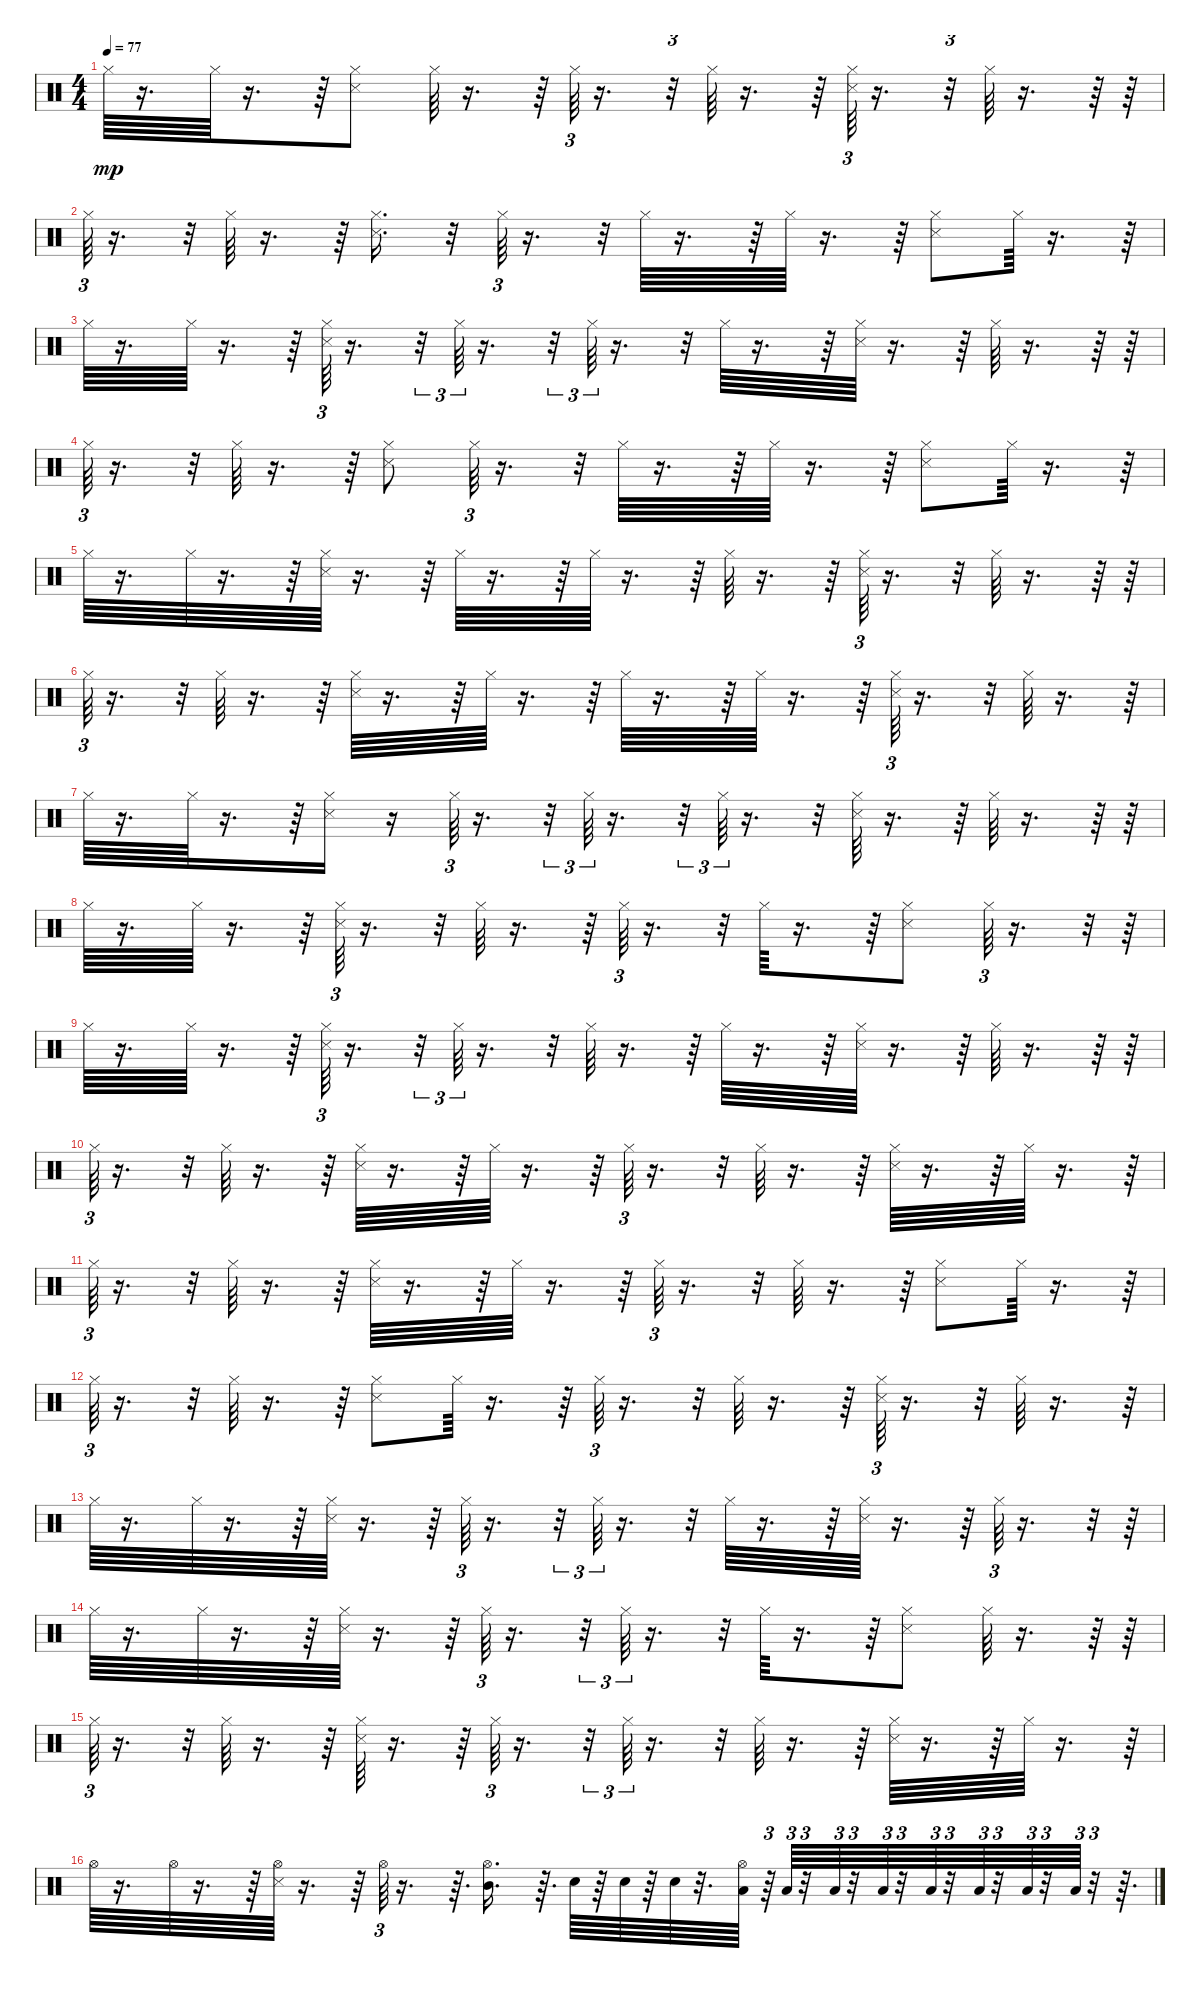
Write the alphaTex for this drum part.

\track "" {instrument percussion}
\staff {score}
\articulation defaults
\ts (4 4)
\tempo 77
\clef neutral
\ks c "Hi-Hat (closed)".64{dy mp}
r.16{d} "Hi-Hat (closed)".64 r.16{d} r.64 ("Snare (side stick) 3" "Hi-Hat (closed)").8 "Hi-Hat (closed)".64 r.16{d} r.64 "Hi-Hat (closed)".64{tu (3 2)} r.16{d} r.32{tu (3 2)} "Hi-Hat (closed)".64 r.16{d} r.64 ("Hi-Hat (closed)" "Snare (side stick) 3").64{tu (3 2)} r.16{d} r.32{tu (3 2)} "Hi-Hat (closed)".64 r.16{d} r.64 r.64 |
"Hi-Hat (closed)".64{tu (3 2)} r.16{d} r.32{tu (3 2)} "Hi-Hat (closed)".64 r.16{d} r.64 ("Hi-Hat (closed)" "Snare (side stick) 3").16{d} r.32 "Hi-Hat (closed)".64{tu (3 2)} r.16{d} r.32{tu (3 2)} "Hi-Hat (closed)".64 r.16{d} r.64 "Hi-Hat (closed)".64 r.16{d} r.64 ("Hi-Hat (closed)" "Snare (side stick) 3").8 "Hi-Hat (closed)".64 r.16{d} r.64 |
"Hi-Hat (closed)".64 r.16{d} "Hi-Hat (closed)".64 r.16{d} r.64 ("Hi-Hat (closed)" "Snare (side stick) 3").64{tu (3 2)} r.16{d} r.32{tu (3 2)} "Hi-Hat (closed)".64{tu (3 2)} r.16{d} r.32{tu (3 2)} "Hi-Hat (closed)".64{tu (3 2)} r.16{d} r.32{tu (3 2)} "Hi-Hat (closed)".64 r.16{d} r.64 ("Hi-Hat (closed)" "Snare (side stick) 3").64 r.16{d} r.64 "Hi-Hat (closed)".64 r.16{d} r.64 r.64 |
"Hi-Hat (closed)".64{tu (3 2)} r.16{d} r.32{tu (3 2)} "Hi-Hat (closed)".64 r.16{d} r.64 ("Snare (side stick) 3" "Hi-Hat (closed)").8 "Hi-Hat (closed)".64{tu (3 2)} r.16{d} r.32{tu (3 2)} "Hi-Hat (closed)".64 r.16{d} r.64 "Hi-Hat (closed)".64 r.16{d} r.64 ("Snare (side stick) 3" "Hi-Hat (closed)").8 "Hi-Hat (closed)".64 r.16{d} r.64 |
"Hi-Hat (closed)".64 r.16{d} "Hi-Hat (closed)".64 r.16{d} r.64 ("Hi-Hat (closed)" "Snare (side stick) 3").64 r.16{d} r.64 "Hi-Hat (closed)".64 r.16{d} r.64 "Hi-Hat (closed)".64 r.16{d} r.64 "Hi-Hat (closed)".64 r.16{d} r.64 ("Hi-Hat (closed)" "Snare (side stick) 3").64{tu (3 2)} r.16{d} r.32{tu (3 2)} "Hi-Hat (closed)".64 r.16{d} r.64 r.64 |
"Hi-Hat (closed)".64{tu (3 2)} r.16{d} r.32{tu (3 2)} "Hi-Hat (closed)".64 r.16{d} r.64 ("Hi-Hat (closed)" "Snare (side stick) 3").64 r.16{d} r.64 "Hi-Hat (closed)".64 r.16{d} r.64 "Hi-Hat (closed)".64 r.16{d} r.64 "Hi-Hat (closed)".64 r.16{d} r.64 ("Hi-Hat (closed)" "Snare (side stick) 3").64{tu (3 2)} r.16{d} r.32{tu (3 2)} "Hi-Hat (closed)".64 r.16{d} r.64 |
"Hi-Hat (closed)".64 r.16{d} "Hi-Hat (closed)".64 r.16{d} r.64 ("Hi-Hat (closed)" "Snare (side stick) 3").16 r.16 "Hi-Hat (closed)".64{tu (3 2)} r.16{d} r.32{tu (3 2)} "Hi-Hat (closed)".64{tu (3 2)} r.16{d} r.32{tu (3 2)} "Hi-Hat (closed)".64{tu (3 2)} r.16{d} r.32{tu (3 2)} ("Hi-Hat (closed)" "Snare (side stick) 3").64 r.16{d} r.64 "Hi-Hat (closed)".64 r.16{d} r.64 r.64 |
"Hi-Hat (closed)".64 r.16{d} "Hi-Hat (closed)".64 r.16{d} r.64 ("Hi-Hat (closed)" "Snare (side stick) 3").64{tu (3 2)} r.16{d} r.32{tu (3 2)} "Hi-Hat (closed)".64 r.16{d} r.64 "Hi-Hat (closed)".64{tu (3 2)} r.16{d} r.32{tu (3 2)} "Hi-Hat (closed)".64 r.16{d} r.64 ("Snare (side stick) 3" "Hi-Hat (closed)").8 "Hi-Hat (closed)".64{tu (3 2)} r.16{d} r.32{tu (3 2)} r.64 |
"Hi-Hat (closed)".64 r.16{d} "Hi-Hat (closed)".64 r.16{d} r.64 ("Hi-Hat (closed)" "Snare (side stick) 3").64{tu (3 2)} r.16{d} r.32{tu (3 2)} "Hi-Hat (closed)".64{tu (3 2)} r.16{d} r.32{tu (3 2)} "Hi-Hat (closed)".64 r.16{d} r.64 "Hi-Hat (closed)".64 r.16{d} r.64 ("Hi-Hat (closed)" "Snare (side stick) 3").64 r.16{d} r.64 "Hi-Hat (closed)".64 r.16{d} r.64 r.64 |
"Hi-Hat (closed)".64{tu (3 2)} r.16{d} r.32{tu (3 2)} "Hi-Hat (closed)".64 r.16{d} r.64 ("Hi-Hat (closed)" "Snare (side stick) 3").64 r.16{d} r.64 "Hi-Hat (closed)".64 r.16{d} r.64 "Hi-Hat (closed)".64{tu (3 2)} r.16{d} r.32{tu (3 2)} "Hi-Hat (closed)".64 r.16{d} r.64 ("Hi-Hat (closed)" "Snare (side stick) 3").64 r.16{d} r.64 "Hi-Hat (closed)".64 r.16{d} r.64 |
"Hi-Hat (closed)".64{tu (3 2)} r.16{d} r.32{tu (3 2)} "Hi-Hat (closed)".64 r.16{d} r.64 ("Hi-Hat (closed)" "Snare (side stick) 3").64 r.16{d} r.64 "Hi-Hat (closed)".64 r.16{d} r.64 "Hi-Hat (closed)".64{tu (3 2)} r.16{d} r.32{tu (3 2)} "Hi-Hat (closed)".64 r.16{d} r.64 ("Snare (side stick) 3" "Hi-Hat (closed)").8 "Hi-Hat (closed)".64 r.16{d} r.64 |
"Hi-Hat (closed)".64{tu (3 2)} r.16{d} r.32{tu (3 2)} "Hi-Hat (closed)".64 r.16{d} r.64 ("Snare (side stick) 3" "Hi-Hat (closed)").8 "Hi-Hat (closed)".64 r.16{d} r.64 "Hi-Hat (closed)".64{tu (3 2)} r.16{d} r.32{tu (3 2)} "Hi-Hat (closed)".64 r.16{d} r.64 ("Hi-Hat (closed)" "Snare (side stick) 3").64{tu (3 2)} r.16{d} r.32{tu (3 2)} "Hi-Hat (closed)".64 r.16{d} r.64 |
"Hi-Hat (closed)".64 r.16{d} "Hi-Hat (closed)".64 r.16{d} r.64 ("Hi-Hat (closed)" "Snare (side stick) 3").64 r.16{d} r.64 "Hi-Hat (closed)".64{tu (3 2)} r.16{d} r.32{tu (3 2)} "Hi-Hat (closed)".64{tu (3 2)} r.16{d} r.32{tu (3 2)} "Hi-Hat (closed)".64 r.16{d} r.64 ("Hi-Hat (closed)" "Snare (side stick) 3").64 r.16{d} r.64 "Hi-Hat (closed)".64{tu (3 2)} r.16{d} r.32{tu (3 2)} r.64 |
"Hi-Hat (closed)".64 r.16{d} "Hi-Hat (closed)".64 r.16{d} r.64 ("Hi-Hat (closed)" "Snare (side stick) 3").64 r.16{d} r.64 "Hi-Hat (closed)".64{tu (3 2)} r.16{d} r.32{tu (3 2)} "Hi-Hat (closed)".64{tu (3 2)} r.16{d} r.32{tu (3 2)} "Hi-Hat (closed)".64 r.16{d} r.64 ("Snare (side stick) 3" "Hi-Hat (closed)").8 "Hi-Hat (closed)".64 r.16{d} r.64 r.64 |
"Hi-Hat (closed)".64{tu (3 2)} r.16{d} r.32{tu (3 2)} "Hi-Hat (closed)".64 r.16{d} r.64 ("Hi-Hat (closed)" "Snare (side stick) 3").64 r.16{d} r.64 "Hi-Hat (closed)".64{tu (3 2)} r.16{d} r.32{tu (3 2)} "Hi-Hat (closed)".64{tu (3 2)} r.16{d} r.32{tu (3 2)} "Hi-Hat (closed)".64 r.16{d} r.64 ("Hi-Hat (closed)" "Snare (side stick) 3").64 r.16{d} r.64 "Hi-Hat (closed)".64 r.16{d} r.64 |
"Hi-Hat (open)".64 r.16{d} "Hi-Hat (open)".64 r.16{d} r.64 ("Hi-Hat (open)" "Snare (side stick) 3").64 r.16{d} r.64 "Hi-Hat (open)".64{tu (3 2)} r.16{d} r.64{d} ("Hi-Hat (open)" "Mid Tom (hit)").16{d} r.64{d} "Electric Snare (hit)".64 r.64 "Electric Snare (hit)".64 r.64 "Electric Snare (hit)".64 r.32{d} ("Low Floor Tom (hit)" "Hi-Hat (open)").64 r.64{tu (3 2)} "Low Floor Tom (hit)".64{tu (3 2)} r.32{tu (3 2)} "Low Floor Tom (hit)".64{tu (3 2)} r.32{tu (3 2)} "Low Floor Tom (hit)".64{tu (3 2)} r.32{tu (3 2)} "Low Floor Tom (hit)".64{tu (3 2)} r.32{tu (3 2)} "Low Floor Tom (hit)".64{tu (3 2)} r.32{tu (3 2)} "Low Floor Tom (hit)".64{tu (3 2)} r.32{tu (3 2)} "Low Floor Tom (hit)".64{tu (3 2)} r.32{tu (3 2)} r.64{d}
